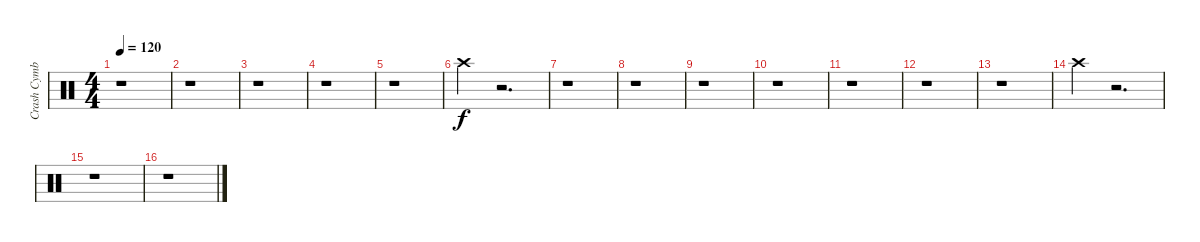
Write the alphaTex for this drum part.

\track ("Crash Cymbal" "Crash Cymb") {instrument percussion}
\staff {score}
\articulation defaults
\ts (4 4)
\tempo 120
\clef neutral
\ks c
r.1{dy f} |
r.1 |
r.1 |
r.1 |
r.1 |
"Crash high (hit)".4 r.2{d} |
r.1 |
r.1 |
r.1 |
r.1 |
r.1 |
r.1 |
r.1 |
"Crash high (hit)".4 r.2{d} |
r.1 |
r.1
